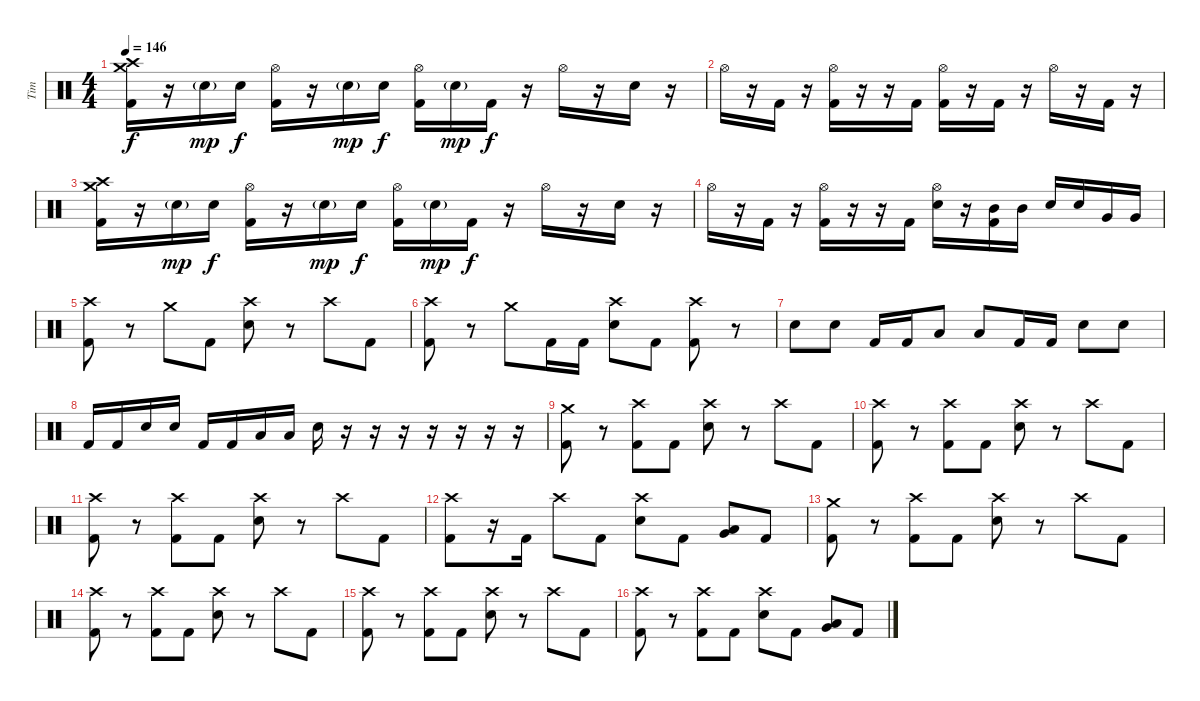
\track ("Tim" "Tim") {instrument percussion}
\staff {score}
\articulation defaults
\ts (4 4)
\tempo 146
\clef neutral
\ks c
("Crash high (hit)" "Crash medium (hit)" "Kick (hit) 2").16{dy f} r.16 "Electric Snare (hit)"{g}.16{dy mp} "Electric Snare (hit)".16{dy f} ("Hi-Hat (open)" "Kick (hit) 2").16 r.16 "Electric Snare (hit)"{g}.16{dy mp} "Electric Snare (hit)".16{dy f} ("Hi-Hat (open)" "Kick (hit) 2").16 "Electric Snare (hit)"{g}.16{dy mp} "Kick (hit) 2".16{dy f} r.16 "Hi-Hat (open)".16 r.16 "Electric Snare (hit)".16 r.16 |
"Hi-Hat (open)".16 r.16 "Kick (hit) 2".16 r.16 ("Hi-Hat (open)" "Kick (hit) 2").16 r.16 r.16 "Kick (hit) 2".16 ("Hi-Hat (open)" "Kick (hit) 2").16 r.16 "Kick (hit) 2".16 r.16 "Hi-Hat (open)".16 r.16 "Kick (hit) 2".16 r.16 |
("Crash high (hit)" "Crash medium (hit)" "Kick (hit) 2").16 r.16 "Electric Snare (hit)"{g}.16{dy mp} "Electric Snare (hit)".16{dy f} ("Hi-Hat (open)" "Kick (hit) 2").16 r.16 "Electric Snare (hit)"{g}.16{dy mp} "Electric Snare (hit)".16{dy f} ("Hi-Hat (open)" "Kick (hit) 2").16 "Electric Snare (hit)"{g}.16{dy mp} "Kick (hit) 2".16{dy f} r.16 "Hi-Hat (open)".16 r.16 "Electric Snare (hit)".16 r.16 |
"Hi-Hat (open)".16 r.16 "Kick (hit) 2".16 r.16 ("Hi-Hat (open)" "Kick (hit) 2").16 r.16 r.16 "Kick (hit) 2".16 ("Hi-Hat (open)" "Electric Snare (hit)").16 r.16 ("Mid Tom (hit)" "Kick (hit) 2").16 "Mid Tom (hit)".16 "Electric Snare (hit)".16 "Electric Snare (hit)".16 "Very Low Tom (hit)".16 "Very Low Tom (hit)".16 |
("Crash high (hit)" "Kick (hit) 2").8 r.8 "Crash medium (hit)".8 "Kick (hit) 2".8 ("Crash high (hit)" "Electric Snare (hit)").8 r.8 "Crash high (hit)".8 "Kick (hit) 2".8 |
("Crash high (hit)" "Kick (hit) 2").8 r.8 "Crash medium (hit)".8 "Kick (hit) 2".16 "Kick (hit) 2".16 ("Crash high (hit)" "Electric Snare (hit)").8 "Kick (hit) 2".8 ("Crash high (hit)" "Kick (hit) 2").8 r.8 |
"Electric Snare (hit)".8 "Electric Snare (hit)".8 "Kick (hit) 2".16 "Kick (hit) 2".16 "Low Tom (hit)".8 "Low Tom (hit)".8 "Kick (hit) 2".16 "Kick (hit) 2".16 "Electric Snare (hit)".8 "Electric Snare (hit)".8 |
"Kick (hit) 2".16 "Kick (hit) 2".16 "Electric Snare (hit)".16 "Electric Snare (hit)".16 "Kick (hit) 2".16 "Kick (hit) 2".16 "Low Tom (hit)".16 "Low Tom (hit)".16 "Electric Snare (hit)".16 r.16 r.16 r.16 r.16 r.16 r.16 r.16 |
("Crash medium (hit)" "Kick (hit) 2").8 r.8 ("Crash high (hit)" "Kick (hit) 2").8 "Kick (hit) 2".8 ("Crash high (hit)" "Electric Snare (hit)").8 r.8 "Crash high (hit)".8 "Kick (hit) 2".8 |
("Crash high (hit)" "Kick (hit) 2").8 r.8 ("Crash high (hit)" "Kick (hit) 2").8 "Kick (hit) 2".8 ("Crash high (hit)" "Electric Snare (hit)").8 r.8 "Crash high (hit)".8 "Kick (hit) 2".8 |
("Crash high (hit)" "Kick (hit) 2").8 r.8 ("Crash high (hit)" "Kick (hit) 2").8 "Kick (hit) 2".8 ("Crash high (hit)" "Electric Snare (hit)").8 r.8 "Crash high (hit)".8 "Kick (hit) 2".8 |
("Crash high (hit)" "Kick (hit) 2").8 r.16 "Kick (hit) 2".16 "Crash high (hit)".8 "Kick (hit) 2".8 ("Crash high (hit)" "Electric Snare (hit)").8 "Kick (hit) 2".8 ("Low Tom (hit)" "Very Low Tom (hit)").8 "Kick (hit) 2".8 |
("Crash medium (hit)" "Kick (hit) 2").8 r.8 ("Crash high (hit)" "Kick (hit) 2").8 "Kick (hit) 2".8 ("Crash high (hit)" "Electric Snare (hit)").8 r.8 "Crash high (hit)".8 "Kick (hit) 2".8 |
("Crash high (hit)" "Kick (hit) 2").8 r.8 ("Crash high (hit)" "Kick (hit) 2").8 "Kick (hit) 2".8 ("Crash high (hit)" "Electric Snare (hit)").8 r.8 "Crash high (hit)".8 "Kick (hit) 2".8 |
("Crash high (hit)" "Kick (hit) 2").8 r.8 ("Crash high (hit)" "Kick (hit) 2").8 "Kick (hit) 2".8 ("Crash high (hit)" "Electric Snare (hit)").8 r.8 "Crash high (hit)".8 "Kick (hit) 2".8 |
("Crash high (hit)" "Kick (hit) 2").8 r.8 ("Crash high (hit)" "Kick (hit) 2").8 "Kick (hit) 2".8 ("Crash high (hit)" "Electric Snare (hit)").8 "Kick (hit) 2".8 ("Low Tom (hit)" "Very Low Tom (hit)").8 "Kick (hit) 2".8
